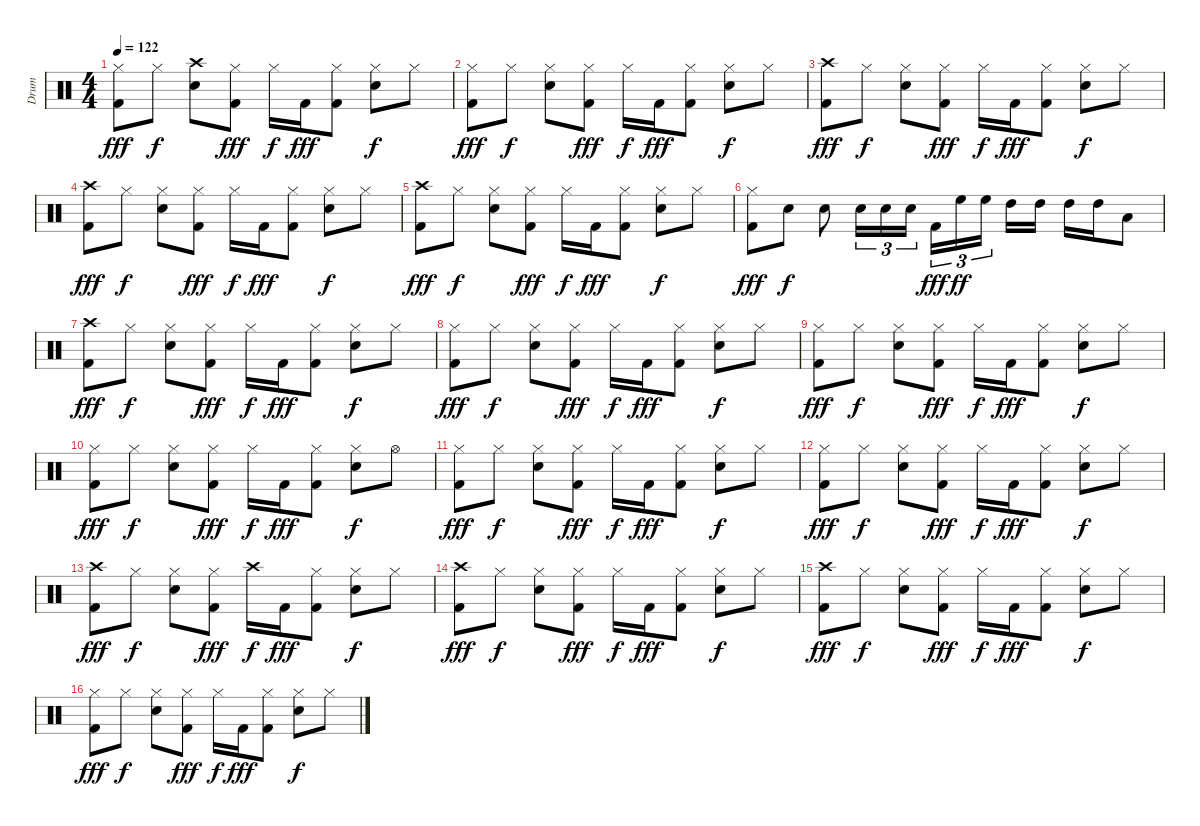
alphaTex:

\track ("Drum" "Drum") {instrument percussion}
\staff {score}
\articulation defaults
\ts (4 4)
\tempo 122
\clef neutral
\ks c
("Hi-Hat (closed)" "Kick (hit) 2").8{dy fff} "Hi-Hat (closed)".8{dy f} ("Crash high (hit)" "Snare (hit) 2").8 ("Hi-Hat (closed)" "Kick (hit) 2").8{dy fff} "Hi-Hat (closed)".16{dy f} "Kick (hit) 2".16{dy fff} ("Hi-Hat (closed)" "Kick (hit) 2").8 ("Hi-Hat (closed)" "Snare (hit) 2").8{dy f} "Hi-Hat (closed)".8 |
("Hi-Hat (closed)" "Kick (hit) 2").8{dy fff} "Hi-Hat (closed)".8{dy f} ("Hi-Hat (closed)" "Snare (hit) 2").8 ("Hi-Hat (closed)" "Kick (hit) 2").8{dy fff} "Hi-Hat (closed)".16{dy f} "Kick (hit) 2".16{dy fff} ("Hi-Hat (closed)" "Kick (hit) 2").8 ("Hi-Hat (closed)" "Snare (hit) 2").8{dy f} "Hi-Hat (closed)".8 |
("Crash high (hit)" "Kick (hit) 2").8{dy fff} "Hi-Hat (closed)".8{dy f} ("Hi-Hat (closed)" "Snare (hit) 2").8 ("Hi-Hat (closed)" "Kick (hit) 2").8{dy fff} "Hi-Hat (closed)".16{dy f} "Kick (hit) 2".16{dy fff} ("Hi-Hat (closed)" "Kick (hit) 2").8 ("Hi-Hat (closed)" "Snare (hit) 2").8{dy f} "Hi-Hat (closed)".8 |
("Crash high (hit)" "Kick (hit) 2").8{dy fff} "Hi-Hat (closed)".8{dy f} ("Hi-Hat (closed)" "Snare (hit) 2").8 ("Hi-Hat (closed)" "Kick (hit) 2").8{dy fff} "Hi-Hat (closed)".16{dy f} "Kick (hit) 2".16{dy fff} ("Hi-Hat (closed)" "Kick (hit) 2").8 ("Hi-Hat (closed)" "Snare (hit) 2").8{dy f} "Hi-Hat (closed)".8 |
("Crash high (hit)" "Kick (hit) 2").8{dy fff} "Hi-Hat (closed)".8{dy f} ("Hi-Hat (closed)" "Snare (hit) 2").8 ("Hi-Hat (closed)" "Kick (hit) 2").8{dy fff} "Hi-Hat (closed)".16{dy f} "Kick (hit) 2".16{dy fff} ("Hi-Hat (closed)" "Kick (hit) 2").8 ("Hi-Hat (closed)" "Snare (hit) 2").8{dy f} "Hi-Hat (closed)".8 |
("Hi-Hat (closed)" "Kick (hit) 2").8{dy fff} "Snare (hit) 2".8{dy f} "Snare (hit) 2".8 "Snare (hit) 2".16{tu (3 2)} "Snare (hit) 2".16{tu (3 2)} "Snare (hit) 2".16{tu (3 2)} "Kick (hit) 2".16{tu (3 2) dy fff} "High Floor Tom (hit)".16{tu (3 2) dy ff} "High Floor Tom (hit)".16{tu (3 2)} "High Tom (hit)".16 "High Tom (hit)".16 "High Tom (hit)".16 "High Tom (hit)".16 "Low Tom (hit)".8 |
("Crash high (hit)" "Kick (hit) 2").8{dy fff} "Hi-Hat (closed)".8{dy f} ("Hi-Hat (closed)" "Snare (hit) 2").8 ("Hi-Hat (closed)" "Kick (hit) 2").8{dy fff} "Hi-Hat (closed)".16{dy f} "Kick (hit) 2".16{dy fff} ("Hi-Hat (closed)" "Kick (hit) 2").8 ("Hi-Hat (closed)" "Snare (hit) 2").8{dy f} "Hi-Hat (closed)".8 |
("Hi-Hat (closed)" "Kick (hit) 2").8{dy fff} "Hi-Hat (closed)".8{dy f} ("Hi-Hat (closed)" "Snare (hit) 2").8 ("Hi-Hat (closed)" "Kick (hit) 2").8{dy fff} "Hi-Hat (closed)".16{dy f} "Kick (hit) 2".16{dy fff} ("Hi-Hat (closed)" "Kick (hit) 2").8 ("Hi-Hat (closed)" "Snare (hit) 2").8{dy f} "Hi-Hat (closed)".8 |
("Hi-Hat (closed)" "Kick (hit) 2").8{dy fff} "Hi-Hat (closed)".8{dy f} ("Hi-Hat (closed)" "Snare (hit) 2").8 ("Hi-Hat (closed)" "Kick (hit) 2").8{dy fff} "Hi-Hat (closed)".16{dy f} "Kick (hit) 2".16{dy fff} ("Hi-Hat (closed)" "Kick (hit) 2").8 ("Hi-Hat (closed)" "Snare (hit) 2").8{dy f} "Hi-Hat (closed)".8 |
("Hi-Hat (closed)" "Kick (hit) 2").8{dy fff} "Hi-Hat (closed)".8{dy f} ("Hi-Hat (closed)" "Snare (hit) 2").8 ("Hi-Hat (closed)" "Kick (hit) 2").8{dy fff} "Hi-Hat (closed)".16{dy f} "Kick (hit) 2".16{dy fff} ("Hi-Hat (closed)" "Kick (hit) 2").8 ("Hi-Hat (closed)" "Snare (hit) 2").8{dy f} "Hi-Hat (open)".8 |
("Hi-Hat (closed)" "Kick (hit) 2").8{dy fff} "Hi-Hat (closed)".8{dy f} ("Hi-Hat (closed)" "Snare (hit) 2").8 ("Hi-Hat (closed)" "Kick (hit) 2").8{dy fff} "Hi-Hat (closed)".16{dy f} "Kick (hit) 2".16{dy fff} ("Hi-Hat (closed)" "Kick (hit) 2").8 ("Hi-Hat (closed)" "Snare (hit) 2").8{dy f} "Hi-Hat (closed)".8 |
("Hi-Hat (closed)" "Kick (hit) 2").8{dy fff} "Hi-Hat (closed)".8{dy f} ("Hi-Hat (closed)" "Snare (hit) 2").8 ("Hi-Hat (closed)" "Kick (hit) 2").8{dy fff} "Hi-Hat (closed)".16{dy f} "Kick (hit) 2".16{dy fff} ("Hi-Hat (closed)" "Kick (hit) 2").8 ("Hi-Hat (closed)" "Snare (hit) 2").8{dy f} "Hi-Hat (closed)".8 |
("Crash high (hit)" "Kick (hit) 2").8{dy fff} "Hi-Hat (closed)".8{dy f} ("Hi-Hat (closed)" "Snare (hit) 2").8 ("Hi-Hat (closed)" "Kick (hit) 2").8{dy fff} "Crash high (hit)".16{dy f} "Kick (hit) 2".16{dy fff} ("Hi-Hat (closed)" "Kick (hit) 2").8 ("Hi-Hat (closed)" "Snare (hit) 2").8{dy f} "Hi-Hat (closed)".8 |
("Crash high (hit)" "Kick (hit) 2").8{dy fff} "Hi-Hat (closed)".8{dy f} ("Hi-Hat (closed)" "Snare (hit) 2").8 ("Hi-Hat (closed)" "Kick (hit) 2").8{dy fff} "Hi-Hat (closed)".16{dy f} "Kick (hit) 2".16{dy fff} ("Hi-Hat (closed)" "Kick (hit) 2").8 ("Hi-Hat (closed)" "Snare (hit) 2").8{dy f} "Hi-Hat (closed)".8 |
("Crash high (hit)" "Kick (hit) 2").8{dy fff} "Hi-Hat (closed)".8{dy f} ("Hi-Hat (closed)" "Snare (hit) 2").8 ("Hi-Hat (closed)" "Kick (hit) 2").8{dy fff} "Hi-Hat (closed)".16{dy f} "Kick (hit) 2".16{dy fff} ("Hi-Hat (closed)" "Kick (hit) 2").8 ("Hi-Hat (closed)" "Snare (hit) 2").8{dy f} "Hi-Hat (closed)".8 |
("Hi-Hat (closed)" "Kick (hit) 2").8{dy fff} "Hi-Hat (closed)".8{dy f} ("Hi-Hat (closed)" "Snare (hit) 2").8 ("Hi-Hat (closed)" "Kick (hit) 2").8{dy fff} "Hi-Hat (closed)".16{dy f} "Kick (hit) 2".16{dy fff} ("Hi-Hat (closed)" "Kick (hit) 2").8 ("Hi-Hat (closed)" "Snare (hit) 2").8{dy f} "Hi-Hat (closed)".8
